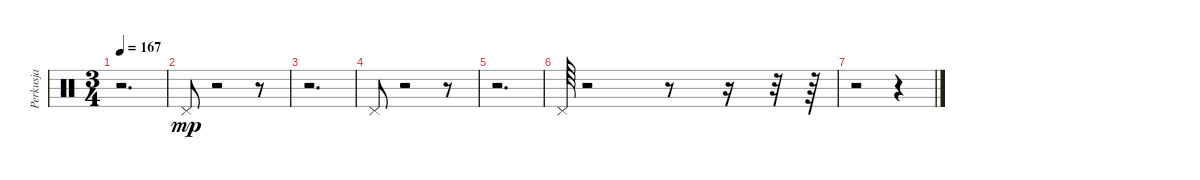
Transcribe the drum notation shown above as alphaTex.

\track ("Perkusja" "Perkusja") {instrument percussion}
\staff {score}
\articulation defaults
\ts (3 4)
\tempo 167
\clef neutral
\ks c
r.2{d dy mp} |
"Pedal Hi-Hat (hit)".8 r.2 r.8 |
r.2{d} |
"Pedal Hi-Hat (hit)".8 r.2 r.8 |
r.2{d} |
"Pedal Hi-Hat (hit)".64 r.2 r.8 r.16 r.32 r.64 |
r.2 r.4
